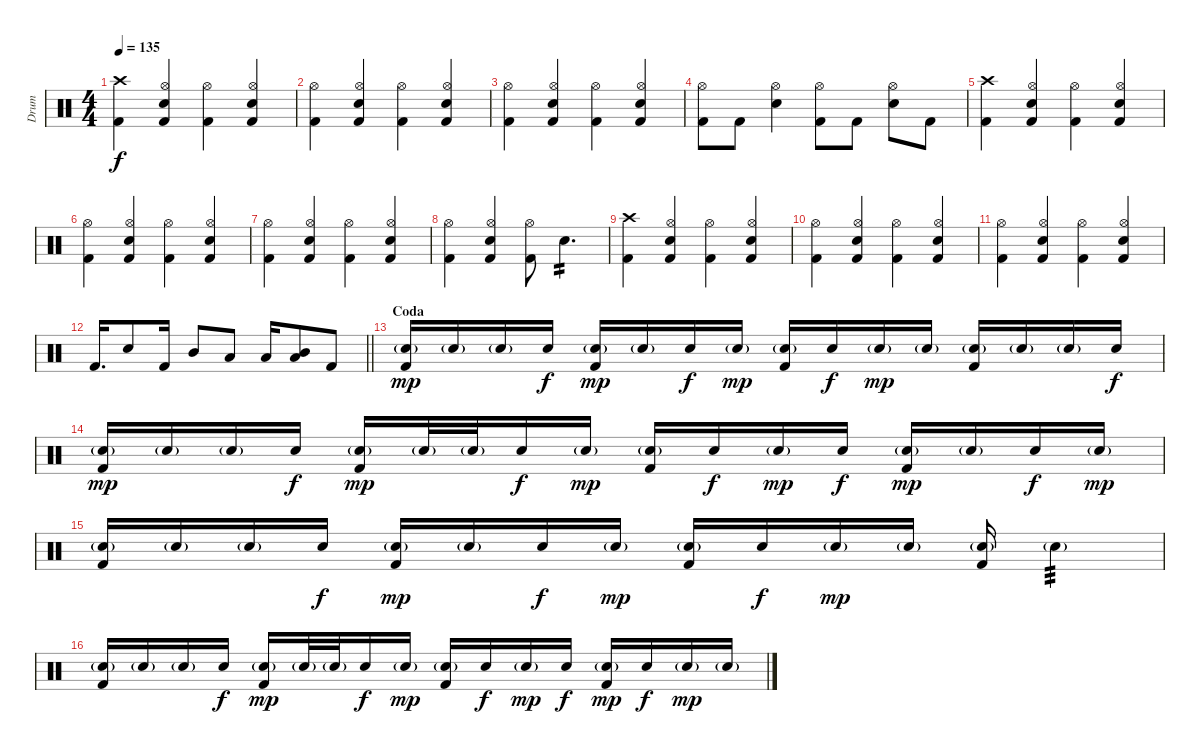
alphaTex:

\track ("Drum" "Drum") {instrument percussion bank 127}
\staff {score}
\articulation defaults
\ts (4 4)
\tempo 135
\clef neutral
\ks c
("Kick (hit) 2" "Crash high (hit)").4{dy f} ("Hi-Hat (open)" "Kick (hit) 2" "Electric Snare (hit)").4 ("Hi-Hat (open)" "Kick (hit) 2").4 ("Hi-Hat (open)" "Kick (hit) 2" "Electric Snare (hit)").4 |
("Hi-Hat (open)" "Kick (hit) 2").4 ("Hi-Hat (open)" "Kick (hit) 2" "Electric Snare (hit)").4 ("Hi-Hat (open)" "Kick (hit) 2").4 ("Hi-Hat (open)" "Kick (hit) 2" "Electric Snare (hit)").4 |
("Hi-Hat (open)" "Kick (hit) 2").4 ("Hi-Hat (open)" "Kick (hit) 2" "Electric Snare (hit)").4 ("Hi-Hat (open)" "Kick (hit) 2").4 ("Hi-Hat (open)" "Kick (hit) 2" "Electric Snare (hit)").4 |
("Hi-Hat (open)" "Kick (hit) 2").8 "Kick (hit) 2".8 ("Hi-Hat (open)" "Electric Snare (hit)").4 ("Hi-Hat (open)" "Kick (hit) 2").8 "Kick (hit) 2".8 ("Hi-Hat (open)" "Electric Snare (hit)").8 "Kick (hit) 2".8 |
("Kick (hit) 2" "Crash high (hit)").4 ("Hi-Hat (open)" "Kick (hit) 2" "Electric Snare (hit)").4 ("Hi-Hat (open)" "Kick (hit) 2").4 ("Hi-Hat (open)" "Kick (hit) 2" "Electric Snare (hit)").4 |
("Hi-Hat (open)" "Kick (hit) 2").4 ("Hi-Hat (open)" "Kick (hit) 2" "Electric Snare (hit)").4 ("Hi-Hat (open)" "Kick (hit) 2").4 ("Hi-Hat (open)" "Kick (hit) 2" "Electric Snare (hit)").4 |
("Hi-Hat (open)" "Kick (hit) 2").4 ("Hi-Hat (open)" "Kick (hit) 2" "Electric Snare (hit)").4 ("Hi-Hat (open)" "Kick (hit) 2").4 ("Hi-Hat (open)" "Kick (hit) 2" "Electric Snare (hit)").4 |
("Hi-Hat (open)" "Kick (hit) 2").4 ("Hi-Hat (open)" "Kick (hit) 2" "Electric Snare (hit)").4 ("Hi-Hat (open)" "Kick (hit) 2").8 "Electric Snare (hit)".4{d tp 2} |
("Kick (hit) 2" "Crash high (hit)").4 ("Hi-Hat (open)" "Kick (hit) 2" "Electric Snare (hit)").4 ("Hi-Hat (open)" "Kick (hit) 2").4 ("Hi-Hat (open)" "Kick (hit) 2" "Electric Snare (hit)").4 |
("Hi-Hat (open)" "Kick (hit) 2").4 ("Hi-Hat (open)" "Kick (hit) 2" "Electric Snare (hit)").4 ("Hi-Hat (open)" "Kick (hit) 2").4 ("Hi-Hat (open)" "Kick (hit) 2" "Electric Snare (hit)").4 |
("Hi-Hat (open)" "Kick (hit) 2").4 ("Hi-Hat (open)" "Kick (hit) 2" "Electric Snare (hit)").4 ("Hi-Hat (open)" "Kick (hit) 2").4 ("Hi-Hat (open)" "Kick (hit) 2" "Electric Snare (hit)").4 |
\barLineRight lightlight "Kick (hit) 2".16{d} "Electric Snare (hit)".8 "Kick (hit) 2".16 "Mid Tom (hit)".8 "Low Tom (hit)".8 "Low Tom (hit)".16
("Mid Tom (hit)" "Low Tom (hit)").8 "Kick (hit) 2".8 |
\section ("" "Coda")
("Kick (hit) 2" "Electric Snare (hit)"{g}).16{dy mp} "Electric Snare (hit)"{g}.16 "Electric Snare (hit)"{g}.16 "Electric Snare (hit)".16{dy f} ("Kick (hit) 2" "Electric Snare (hit)"{g}).16{dy mp} "Electric Snare (hit)"{g}.16 "Electric Snare (hit)".16{dy f} "Electric Snare (hit)"{g}.16{dy mp} ("Kick (hit) 2" "Electric Snare (hit)"{g}).16 "Electric Snare (hit)".16{dy f} "Electric Snare (hit)"{g}.16{dy mp} "Electric Snare (hit)"{g}.16 ("Kick (hit) 2" "Electric Snare (hit)"{g}).16 "Electric Snare (hit)"{g}.16 "Electric Snare (hit)"{g}.16 "Electric Snare (hit)".16{dy f} |
("Kick (hit) 2" "Electric Snare (hit)"{g}).16{dy mp} "Electric Snare (hit)"{g}.16 "Electric Snare (hit)"{g}.16 "Electric Snare (hit)".16{dy f} ("Kick (hit) 2" "Electric Snare (hit)"{g}).16{dy mp} "Electric Snare (hit)"{g}.32 "Electric Snare (hit)"{g}.32 "Electric Snare (hit)".16{dy f} "Electric Snare (hit)"{g}.16{dy mp} ("Kick (hit) 2" "Electric Snare (hit)"{g}).16 "Electric Snare (hit)".16{dy f} "Electric Snare (hit)"{g}.16{dy mp} "Electric Snare (hit)".16{dy f} ("Kick (hit) 2" "Electric Snare (hit)"{g}).16{dy mp} "Electric Snare (hit)"{g}.16 "Electric Snare (hit)".16{dy f} "Electric Snare (hit)"{g}.16{dy mp} |
("Kick (hit) 2" "Electric Snare (hit)"{g}).16 "Electric Snare (hit)"{g}.16 "Electric Snare (hit)"{g}.16 "Electric Snare (hit)".16{dy f} ("Kick (hit) 2" "Electric Snare (hit)"{g}).16{dy mp} "Electric Snare (hit)"{g}.16 "Electric Snare (hit)".16{dy f} "Electric Snare (hit)"{g}.16{dy mp} ("Kick (hit) 2" "Electric Snare (hit)"{g}).16 "Electric Snare (hit)".16{dy f} "Electric Snare (hit)"{g}.16{dy mp} "Electric Snare (hit)"{g}.16 ("Kick (hit) 2" "Electric Snare (hit)"{g}).16 "Electric Snare (hit)"{g}.4{tp 3} |
("Kick (hit) 2" "Electric Snare (hit)"{g}).16 "Electric Snare (hit)"{g}.16 "Electric Snare (hit)"{g}.16 "Electric Snare (hit)".16{dy f} ("Kick (hit) 2" "Electric Snare (hit)"{g}).16{dy mp} "Electric Snare (hit)"{g}.32 "Electric Snare (hit)"{g}.32 "Electric Snare (hit)".16{dy f} "Electric Snare (hit)"{g}.16{dy mp} ("Kick (hit) 2" "Electric Snare (hit)"{g}).16 "Electric Snare (hit)".16{dy f} "Electric Snare (hit)"{g}.16{dy mp} "Electric Snare (hit)".16{dy f} ("Kick (hit) 2" "Electric Snare (hit)"{g}).16{dy mp} "Electric Snare (hit)".16{dy f} "Electric Snare (hit)"{g}.16{dy mp} "Electric Snare (hit)"{g}.16
